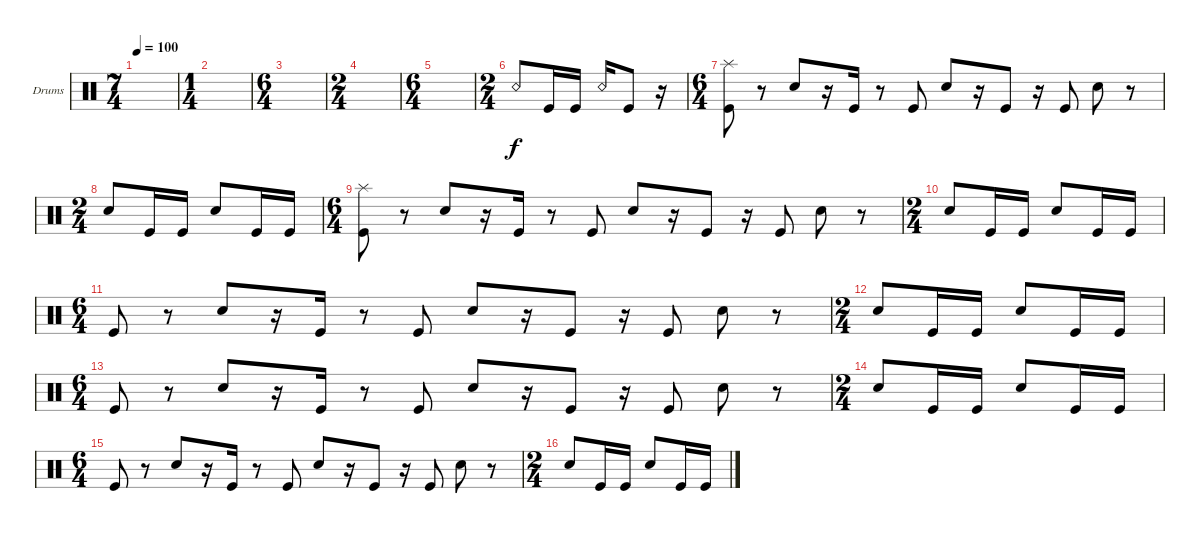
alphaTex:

\bracketExtendMode groupsimilarinstruments
\firstSystemTrackNameOrientation horizontal
\otherSystemsTrackNameOrientation horizontal
\track ("Drumkit" "Drums") {instrument percussion}
\staff {score}
\articulation defaults
\ts (7 4)
\tempo 100
\clef neutral
\scale
0.391473
\ks c
|
\ts (1 4)
|
\ts (6 4)
\scale
0.217054 |
\ts (2 4)
\scale
0.391473 |
\ts (6 4)
\scale
0.333333 |
\ts (2 4)
\scale
0.333333 "Snare (rim shot)".8 "Kick (hit)".16 "Kick (hit)".16 "Snare (rim shot)".16 "Kick (hit)".8 r.16 |
\ts (6 4)
\scale
0.333333 ("Kick (hit)" "Splash (hit)").8 r.8 "Snare (hit) 2".8 r.16 "Kick (hit)".16 r.8 "Kick (hit)".8 "Snare (hit) 2".8 r.16 "Kick (hit)".8 r.16 "Kick (hit)".8 "Snare (hit) 2".8 r.8 |
\ts (2 4)
\scale
0.333333 "Snare (hit) 2".8 "Kick (hit)".16 "Kick (hit)".16 "Snare (hit) 2".8 "Kick (hit)".16 "Kick (hit)".16 |
\ts (6 4)
\scale
0.333333 ("Kick (hit)" "Splash (hit)").8 r.8 "Snare (hit) 2".8 r.16 "Kick (hit)".16 r.8 "Kick (hit)".8 "Snare (hit) 2".8 r.16 "Kick (hit)".8 r.16 "Kick (hit)".8 "Snare (hit) 2".8 r.8 |
\ts (2 4)
\scale
0.333333 "Snare (hit) 2".8 "Kick (hit)".16 "Kick (hit)".16 "Snare (hit) 2".8 "Kick (hit)".16 "Kick (hit)".16 |
\ts (6 4)
\scale
0.333333 "Kick (hit)".8 r.8 "Snare (hit) 2".8 r.16 "Kick (hit)".16 r.8 "Kick (hit)".8 "Snare (hit) 2".8 r.16 "Kick (hit)".8 r.16 "Kick (hit)".8 "Snare (hit) 2".8 r.8 |
\ts (2 4)
\scale
0.333333 "Snare (hit) 2".8 "Kick (hit)".16 "Kick (hit)".16 "Snare (hit) 2".8 "Kick (hit)".16 "Kick (hit)".16 |
\ts (6 4)
\scale
0.333333 "Kick (hit)".8 r.8 "Snare (hit) 2".8 r.16 "Kick (hit)".16 r.8 "Kick (hit)".8 "Snare (hit) 2".8 r.16 "Kick (hit)".8 r.16 "Kick (hit)".8 "Snare (hit) 2".8 r.8 |
\ts (2 4)
\scale
0.333333 "Snare (hit) 2".8 "Kick (hit)".16 "Kick (hit)".16 "Snare (hit) 2".8 "Kick (hit)".16 "Kick (hit)".16 |
\ts (6 4)
\scale
0.333333 "Kick (hit)".8 r.8 "Snare (hit) 2".8 r.16 "Kick (hit)".16 r.8 "Kick (hit)".8 "Snare (hit) 2".8 r.16 "Kick (hit)".8 r.16 "Kick (hit)".8 "Snare (hit) 2".8 r.8 |
\ts (2 4)
\scale
0.333333 "Snare (hit) 2".8 "Kick (hit)".16 "Kick (hit)".16 "Snare (hit) 2".8 "Kick (hit)".16 "Kick (hit)".16
